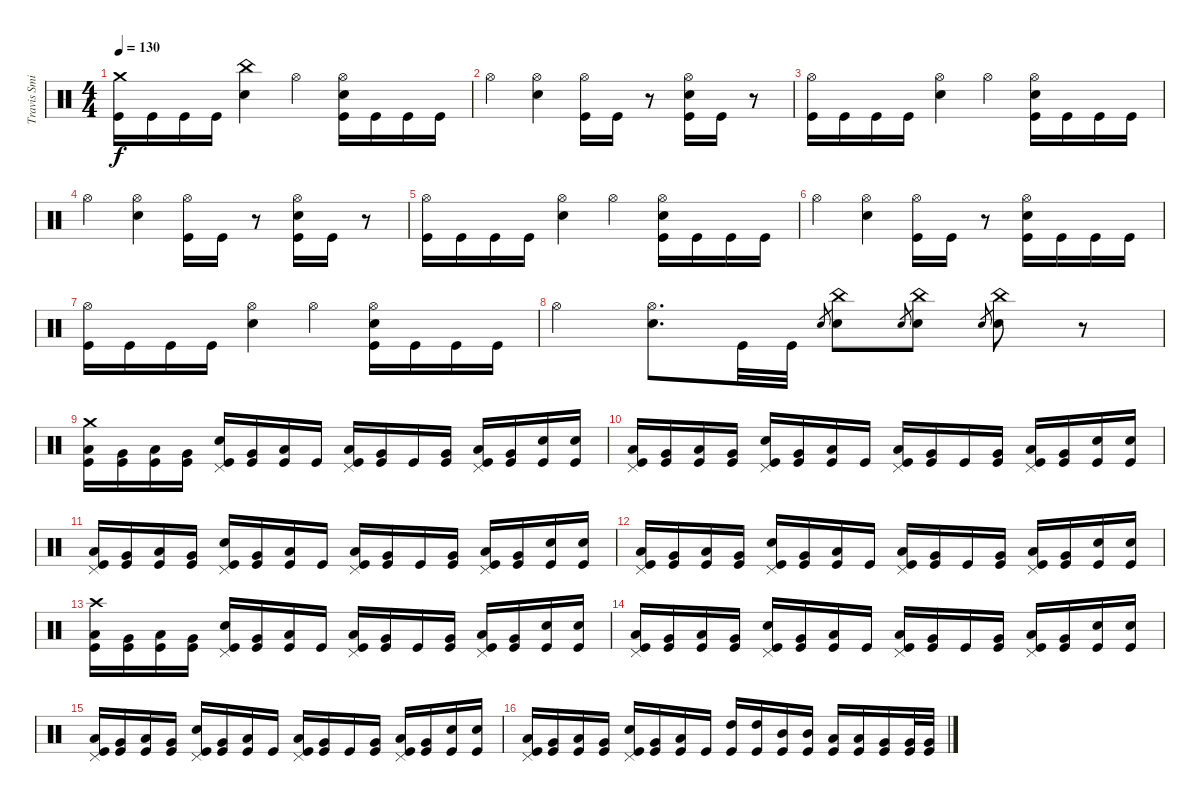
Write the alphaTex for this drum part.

\track ("Travis Smith" "Travis Smi") {instrument percussion}
\staff {score}
\articulation defaults
\ts (4 4)
\tempo 130
\clef neutral
\ks c
("Crash medium (hit)" "Kick (hit)").16{dy f} "Kick (hit)".16 "Kick (hit)".16 "Kick (hit)".16 ("China (hit)" "Snare (hit) 2").4 "Hi-Hat (open)".4 ("Hi-Hat (open)" "Snare (hit) 2" "Kick (hit)").16 "Kick (hit)".16 "Kick (hit)".16 "Kick (hit)".16 |
"Hi-Hat (open)".4 ("Hi-Hat (open)" "Snare (hit) 2").4 ("Hi-Hat (open)" "Kick (hit)").16 "Kick (hit)".16 r.8 ("Hi-Hat (open)" "Snare (hit) 2" "Kick (hit)").16 "Kick (hit)".16 r.8 |
("Hi-Hat (open)" "Kick (hit)").16 "Kick (hit)".16 "Kick (hit)".16 "Kick (hit)".16 ("Hi-Hat (open)" "Snare (hit) 2").4 "Hi-Hat (open)".4 ("Hi-Hat (open)" "Snare (hit) 2" "Kick (hit)").16 "Kick (hit)".16 "Kick (hit)".16 "Kick (hit)".16 |
"Hi-Hat (open)".4 ("Hi-Hat (open)" "Snare (hit) 2").4 ("Hi-Hat (open)" "Kick (hit)").16 "Kick (hit)".16 r.8 ("Hi-Hat (open)" "Snare (hit) 2" "Kick (hit)").16 "Kick (hit)".16 r.8 |
("Hi-Hat (open)" "Kick (hit)").16 "Kick (hit)".16 "Kick (hit)".16 "Kick (hit)".16 ("Hi-Hat (open)" "Snare (hit) 2").4 "Hi-Hat (open)".4 ("Hi-Hat (open)" "Snare (hit) 2" "Kick (hit)").16 "Kick (hit)".16 "Kick (hit)".16 "Kick (hit)".16 |
"Hi-Hat (open)".4 ("Hi-Hat (open)" "Snare (hit) 2").4 ("Hi-Hat (open)" "Kick (hit)").16 "Kick (hit)".16 r.8 ("Hi-Hat (open)" "Snare (hit) 2" "Kick (hit)").16 "Kick (hit)".16 "Kick (hit)".16 "Kick (hit)".16 |
("Hi-Hat (open)" "Kick (hit)").16 "Kick (hit)".16 "Kick (hit)".16 "Kick (hit)".16 ("Hi-Hat (open)" "Snare (hit) 2").4 "Hi-Hat (open)".4 ("Hi-Hat (open)" "Snare (hit) 2" "Kick (hit)").16 "Kick (hit)".16 "Kick (hit)".16 "Kick (hit)".16 |
"Hi-Hat (open)".4 ("Hi-Hat (open)" "Snare (hit) 2").8{d} "Kick (hit)".32 "Kick (hit)".32 "Snare (hit) 2".8{gr} ("China (hit)" "Snare (hit) 2").8 "Snare (hit) 2".8{gr} ("China (hit)" "Snare (hit) 2").8 "Snare (hit) 2".8{gr} ("China (hit)" "Snare (hit) 2").8 r.8 |
("Crash medium (hit)" "Low Tom (hit)" "Kick (hit)").16 ("Very Low Tom (hit)" "Kick (hit)").16 ("Low Tom (hit)" "Kick (hit)").16 ("Very Low Tom (hit)" "Kick (hit)").16 ("Pedal Hi-Hat (hit)" "Snare (hit) 2" "Kick (hit)").16 ("Very Low Tom (hit)" "Kick (hit)").16 ("Low Tom (hit)" "Kick (hit)").16 "Kick (hit)".16 ("Pedal Hi-Hat (hit)" "Low Tom (hit)" "Kick (hit)").16 ("Very Low Tom (hit)" "Kick (hit)").16 "Kick (hit)".16 ("Very Low Tom (hit)" "Kick (hit)").16 ("Pedal Hi-Hat (hit)" "Low Tom (hit)" "Kick (hit)").16 ("Very Low Tom (hit)" "Kick (hit)").16 ("Snare (hit) 2" "Kick (hit)").16 ("Snare (hit) 2" "Kick (hit)").16 |
("Pedal Hi-Hat (hit)" "Low Tom (hit)" "Kick (hit)").16 ("Very Low Tom (hit)" "Kick (hit)").16 ("Low Tom (hit)" "Kick (hit)").16 ("Very Low Tom (hit)" "Kick (hit)").16 ("Pedal Hi-Hat (hit)" "Snare (hit) 2" "Kick (hit)").16 ("Very Low Tom (hit)" "Kick (hit)").16 ("Low Tom (hit)" "Kick (hit)").16 "Kick (hit)".16 ("Pedal Hi-Hat (hit)" "Low Tom (hit)" "Kick (hit)").16 ("Very Low Tom (hit)" "Kick (hit)").16 "Kick (hit)".16 ("Very Low Tom (hit)" "Kick (hit)").16 ("Pedal Hi-Hat (hit)" "Low Tom (hit)" "Kick (hit)").16 ("Very Low Tom (hit)" "Kick (hit)").16 ("Snare (hit) 2" "Kick (hit)").16 ("Snare (hit) 2" "Kick (hit)").16 |
("Pedal Hi-Hat (hit)" "Low Tom (hit)" "Kick (hit)").16 ("Very Low Tom (hit)" "Kick (hit)").16 ("Low Tom (hit)" "Kick (hit)").16 ("Very Low Tom (hit)" "Kick (hit)").16 ("Pedal Hi-Hat (hit)" "Snare (hit) 2" "Kick (hit)").16 ("Very Low Tom (hit)" "Kick (hit)").16 ("Low Tom (hit)" "Kick (hit)").16 "Kick (hit)".16 ("Pedal Hi-Hat (hit)" "Low Tom (hit)" "Kick (hit)").16 ("Very Low Tom (hit)" "Kick (hit)").16 "Kick (hit)".16 ("Very Low Tom (hit)" "Kick (hit)").16 ("Pedal Hi-Hat (hit)" "Low Tom (hit)" "Kick (hit)").16 ("Very Low Tom (hit)" "Kick (hit)").16 ("Snare (hit) 2" "Kick (hit)").16 ("Snare (hit) 2" "Kick (hit)").16 |
("Pedal Hi-Hat (hit)" "Low Tom (hit)" "Kick (hit)").16 ("Very Low Tom (hit)" "Kick (hit)").16 ("Low Tom (hit)" "Kick (hit)").16 ("Very Low Tom (hit)" "Kick (hit)").16 ("Pedal Hi-Hat (hit)" "Snare (hit) 2" "Kick (hit)").16 ("Very Low Tom (hit)" "Kick (hit)").16 ("Low Tom (hit)" "Kick (hit)").16 "Kick (hit)".16 ("Pedal Hi-Hat (hit)" "Low Tom (hit)" "Kick (hit)").16 ("Very Low Tom (hit)" "Kick (hit)").16 "Kick (hit)".16 ("Very Low Tom (hit)" "Kick (hit)").16 ("Pedal Hi-Hat (hit)" "Low Tom (hit)" "Kick (hit)").16 ("Very Low Tom (hit)" "Kick (hit)").16 ("Snare (hit) 2" "Kick (hit)").16 ("Snare (hit) 2" "Kick (hit)").16 |
("Crash high (hit)" "Low Tom (hit)" "Kick (hit)").16 ("Very Low Tom (hit)" "Kick (hit)").16 ("Low Tom (hit)" "Kick (hit)").16 ("Very Low Tom (hit)" "Kick (hit)").16 ("Pedal Hi-Hat (hit)" "Snare (hit) 2" "Kick (hit)").16 ("Very Low Tom (hit)" "Kick (hit)").16 ("Low Tom (hit)" "Kick (hit)").16 "Kick (hit)".16 ("Pedal Hi-Hat (hit)" "Low Tom (hit)" "Kick (hit)").16 ("Very Low Tom (hit)" "Kick (hit)").16 "Kick (hit)".16 ("Very Low Tom (hit)" "Kick (hit)").16 ("Pedal Hi-Hat (hit)" "Low Tom (hit)" "Kick (hit)").16 ("Very Low Tom (hit)" "Kick (hit)").16 ("Snare (hit) 2" "Kick (hit)").16 ("Snare (hit) 2" "Kick (hit)").16 |
("Pedal Hi-Hat (hit)" "Low Tom (hit)" "Kick (hit)").16 ("Very Low Tom (hit)" "Kick (hit)").16 ("Low Tom (hit)" "Kick (hit)").16 ("Very Low Tom (hit)" "Kick (hit)").16 ("Pedal Hi-Hat (hit)" "Snare (hit) 2" "Kick (hit)").16 ("Very Low Tom (hit)" "Kick (hit)").16 ("Low Tom (hit)" "Kick (hit)").16 "Kick (hit)".16 ("Pedal Hi-Hat (hit)" "Low Tom (hit)" "Kick (hit)").16 ("Very Low Tom (hit)" "Kick (hit)").16 "Kick (hit)".16 ("Very Low Tom (hit)" "Kick (hit)").16 ("Pedal Hi-Hat (hit)" "Low Tom (hit)" "Kick (hit)").16 ("Very Low Tom (hit)" "Kick (hit)").16 ("Snare (hit) 2" "Kick (hit)").16 ("Snare (hit) 2" "Kick (hit)").16 |
("Pedal Hi-Hat (hit)" "Low Tom (hit)" "Kick (hit)").16 ("Very Low Tom (hit)" "Kick (hit)").16 ("Low Tom (hit)" "Kick (hit)").16 ("Very Low Tom (hit)" "Kick (hit)").16 ("Pedal Hi-Hat (hit)" "Snare (hit) 2" "Kick (hit)").16 ("Very Low Tom (hit)" "Kick (hit)").16 ("Low Tom (hit)" "Kick (hit)").16 "Kick (hit)".16 ("Pedal Hi-Hat (hit)" "Low Tom (hit)" "Kick (hit)").16 ("Very Low Tom (hit)" "Kick (hit)").16 "Kick (hit)".16 ("Very Low Tom (hit)" "Kick (hit)").16 ("Pedal Hi-Hat (hit)" "Low Tom (hit)" "Kick (hit)").16 ("Very Low Tom (hit)" "Kick (hit)").16 ("Snare (hit) 2" "Kick (hit)").16 ("Snare (hit) 2" "Kick (hit)").16 |
("Pedal Hi-Hat (hit)" "Low Tom (hit)" "Kick (hit)").16 ("Very Low Tom (hit)" "Kick (hit)").16 ("Low Tom (hit)" "Kick (hit)").16 ("Very Low Tom (hit)" "Kick (hit)").16 ("Pedal Hi-Hat (hit)" "Snare (hit) 2" "Kick (hit)").16 ("Very Low Tom (hit)" "Kick (hit)").16 ("Low Tom (hit)" "Kick (hit)").16 "Kick (hit)".16 ("High Tom (hit)" "Kick (hit)").16 ("High Tom (hit)" "Kick (hit)").16 ("Mid Tom (hit)" "Kick (hit)").16 ("Mid Tom (hit)" "Kick (hit)").16 ("Low Tom (hit)" "Kick (hit)").16 ("Low Tom (hit)" "Kick (hit)").16 ("Very Low Tom (hit)" "Kick (hit)").16 ("Very Low Tom (hit)" "Kick (hit)").32 ("Very Low Tom (hit)" "Kick (hit)").32
